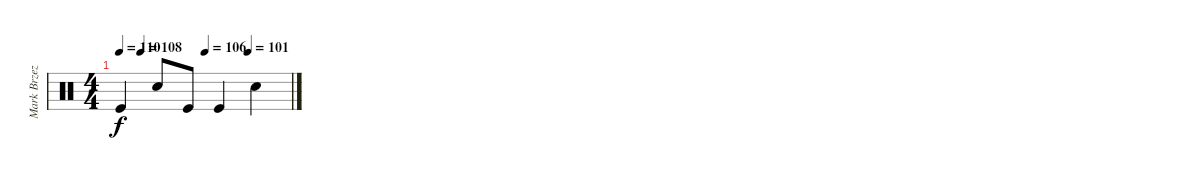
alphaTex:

\track ("Mark Brzezicki - Toms, Snare & Bass Drum" "Mark Brzez") {instrument percussion}
\staff {score}
\articulation defaults
\ts (4 4)
\tempo 110
\tempo (108 0.125)
\tempo (106 0.5)
\tempo (101 0.75)
\clef neutral
\ks c "Kick (hit)".4{dy f} "Electric Snare (hit)".8 "Kick (hit)".8 "Kick (hit)".4 "Electric Snare (hit)".4
